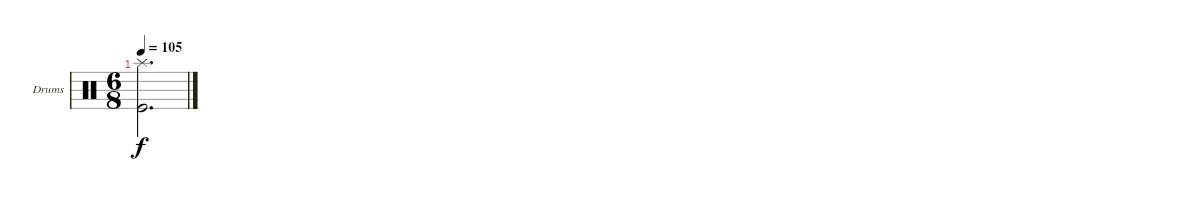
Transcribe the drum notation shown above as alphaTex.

\defaultSystemsLayout 4
\bracketExtendMode nobrackets
\firstSystemTrackNameOrientation horizontal
\otherSystemsTrackNameOrientation horizontal
\track ("Drumkit" "Drums") {instrument percussion}
\staff {score}
\articulation defaults
\ts (6 8)
\tempo 105
\clef neutral
\ks c
("Kick (hit)" "Splash (hit)").2{d dy f}
